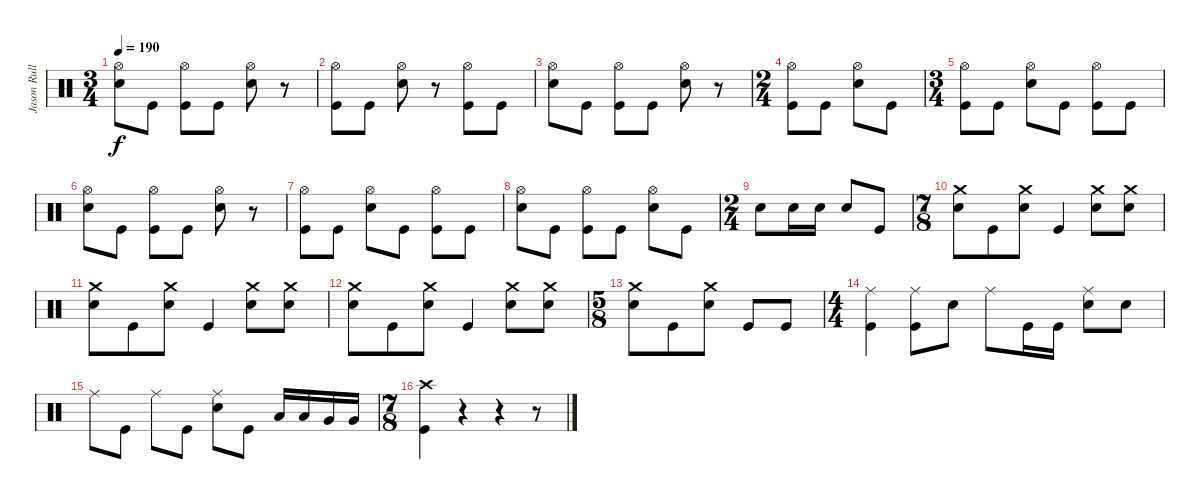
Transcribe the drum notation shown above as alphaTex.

\track ("Jason Rullo - Drums and Percussion" "Jason Rull") {instrument percussion}
\staff {score}
\articulation defaults
\ts (3 4)
\tempo 190
\clef neutral
\ks c
("Snare (hit) 2" "Hi-Hat (open)").8{dy f} "Kick (hit)".8 ("Kick (hit)" "Hi-Hat (open)").8 "Kick (hit)".8 ("Snare (hit) 2" "Hi-Hat (open)").8 r.8 |
("Kick (hit)" "Hi-Hat (open)").8 "Kick (hit)".8 ("Snare (hit) 2" "Hi-Hat (open)").8 r.8 ("Kick (hit)" "Hi-Hat (open)").8 "Kick (hit)".8 |
("Snare (hit) 2" "Hi-Hat (open)").8 "Kick (hit)".8 ("Kick (hit)" "Hi-Hat (open)").8 "Kick (hit)".8 ("Snare (hit) 2" "Hi-Hat (open)").8 r.8 |
\ts (2 4)
("Kick (hit)" "Hi-Hat (open)").8 "Kick (hit)".8 ("Snare (hit) 2" "Hi-Hat (open)").8 "Kick (hit)".8 |
\ts (3 4)
("Kick (hit)" "Hi-Hat (open)").8 "Kick (hit)".8 ("Snare (hit) 2" "Hi-Hat (open)").8 "Kick (hit)".8 ("Kick (hit)" "Hi-Hat (open)").8 "Kick (hit)".8 |
("Snare (hit) 2" "Hi-Hat (open)").8 "Kick (hit)".8 ("Kick (hit)" "Hi-Hat (open)").8 "Kick (hit)".8 ("Snare (hit) 2" "Hi-Hat (open)").8 r.8 |
("Kick (hit)" "Hi-Hat (open)").8 "Kick (hit)".8 ("Hi-Hat (open)" "Snare (hit) 2").8 "Kick (hit)".8 ("Kick (hit)" "Hi-Hat (open)").8 "Kick (hit)".8 |
("Snare (hit) 2" "Hi-Hat (open)").8 "Kick (hit)".8 ("Kick (hit)" "Hi-Hat (open)").8 "Kick (hit)".8 ("Snare (hit) 2" "Hi-Hat (open)").8 "Kick (hit)".8 |
\ts (2 4)
"Snare (hit) 2".8 "Snare (hit) 2".16 "Snare (hit) 2".16 "Snare (hit) 2".8 "Kick (hit)".8 |
\ts (7 8)
("Snare (hit) 2" "Crash medium (hit)").8 "Kick (hit)".8 ("Snare (hit) 2" "Crash medium (hit)").8 "Kick (hit)".4 ("Snare (hit) 2" "Crash medium (hit)").8 ("Snare (hit) 2" "Crash medium (hit)").8 |
("Snare (hit) 2" "Crash medium (hit)").8 "Kick (hit)".8 ("Snare (hit) 2" "Crash medium (hit)").8 "Kick (hit)".4 ("Snare (hit) 2" "Crash medium (hit)").8 ("Snare (hit) 2" "Crash medium (hit)").8 |
("Snare (hit) 2" "Crash medium (hit)").8 "Kick (hit)".8 ("Snare (hit) 2" "Crash medium (hit)").8 "Kick (hit)".4 ("Snare (hit) 2" "Crash medium (hit)").8 ("Snare (hit) 2" "Crash medium (hit)").8 |
\ts (5 8)
("Snare (hit) 2" "Crash medium (hit)").8 "Kick (hit)".8 ("Snare (hit) 2" "Crash medium (hit)").8 "Kick (hit)".8 "Kick (hit)".8 |
\ts (4 4)
("Ride (middle)" "Kick (hit)").4 ("Kick (hit)" "Ride (middle)").8 "Snare (hit) 2".8 "Ride (middle)".8 "Kick (hit)".16 "Kick (hit)".16 ("Snare (hit) 2" "Ride (middle)").8 "Snare (hit) 2".8 |
"Ride (middle)".8 "Kick (hit)".8 "Ride (middle)".8 "Kick (hit)".8 ("Snare (hit) 2" "Ride (middle)").8 "Kick (hit)".8 "Low Tom (hit)".16 "Low Tom (hit)".16 "Very Low Tom (hit)".16 "Very Low Tom (hit)".16 |
\ts (7 8)
("Crash high (hit)" "Kick (hit)").4 r.4 r.4 r.8
